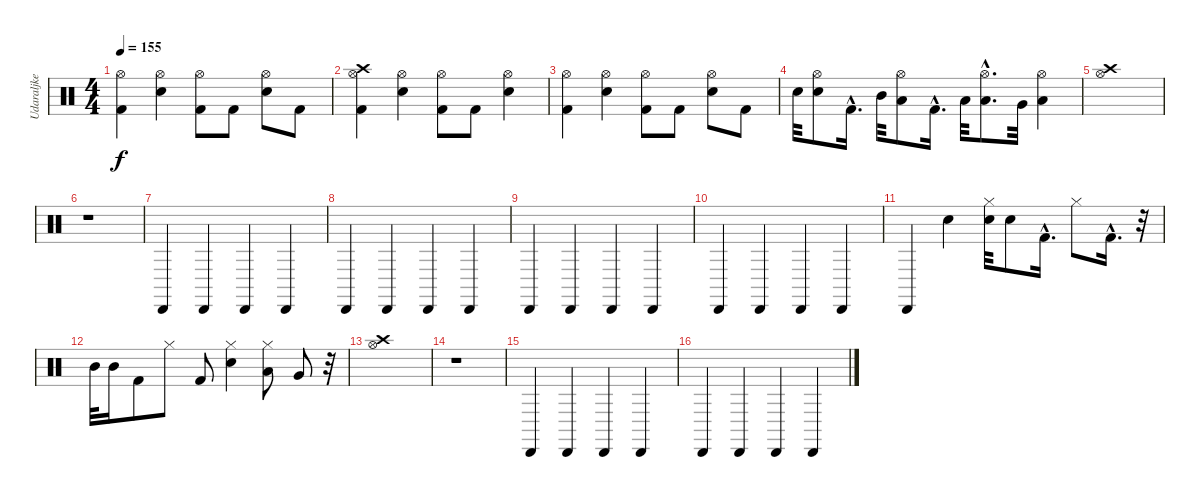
\track ("Udaraljke" "Udaraljke") {instrument percussion}
\staff {score}
\articulation defaults
\ts (4 4)
\tempo 155
\clef neutral
\ks c
("Hi-Hat (open)" "Kick (hit) 2").4{dy f} ("Hi-Hat (open)" "Electric Snare (hit)").4 ("Hi-Hat (open)" "Kick (hit) 2").8 "Kick (hit) 2".8 ("Hi-Hat (open)" "Electric Snare (hit)").8 "Kick (hit) 2".8 |
("Crash high (hit)" "Hi-Hat (open)" "Kick (hit) 2").4 ("Hi-Hat (open)" "Electric Snare (hit)").4 ("Hi-Hat (open)" "Kick (hit) 2").8 "Kick (hit) 2".8 ("Hi-Hat (open)" "Electric Snare (hit)").4 |
("Hi-Hat (open)" "Kick (hit) 2").4 ("Hi-Hat (open)" "Electric Snare (hit)").4 ("Hi-Hat (open)" "Kick (hit) 2").8 "Kick (hit) 2".8 ("Hi-Hat (open)" "Electric Snare (hit)").8 "Kick (hit) 2".8 |
"Snare (hit) 2".32 ("Snare (hit) 2" "Hi-Hat (open)").8 "Kick (hit) 2"{hac}.16{d} "Mid Tom (hit)".32 ("Low Tom (hit)" "Hi-Hat (open)").8 "Kick (hit) 2"{hac}.16{d} "Low Tom (hit)".32 ("Low Tom (hit)"{hac} "Hi-Hat (open)"{hac}).8{d} "Very Low Tom (hit)".32 ("Low Tom (hit)" "Hi-Hat (open)").4 |
("Hi-Hat (open)" "Crash high (hit)").1 |
r.1 |
"Cabasa (hit)".4 "Cabasa (hit)".4 "Cabasa (hit)".4 "Cabasa (hit)".4 |
"Cabasa (hit)".4 "Cabasa (hit)".4 "Cabasa (hit)".4 "Cabasa (hit)".4 |
"Cabasa (hit)".4 "Cabasa (hit)".4 "Cabasa (hit)".4 "Cabasa (hit)".4 |
"Cabasa (hit)".4 "Cabasa (hit)".4 "Cabasa (hit)".4 "Cabasa (hit)".4 |
"Cabasa (hit)".4 "Snare (hit) 2".4 ("Snare (hit) 2" "Hi-Hat (closed)").32 "Snare (hit) 2".8 "Kick (hit) 2"{hac}.16{d} "Hi-Hat (closed)".8 "Kick (hit) 2"{hac}.16{d} r.32 |
"Mid Tom (hit)".32 "Mid Tom (hit)".16 "Kick (hit) 2".8 "Hi-Hat (closed)".8 "Kick (hit) 2".8 ("Snare (hit) 2" "Hi-Hat (closed)").4 ("Low Tom (hit)" "Hi-Hat (closed)").8 "Very Low Tom (hit)".8 r.32 |
("Hi-Hat (open)" "Crash high (hit)").1 |
r.1 |
"Cabasa (hit)".4 "Cabasa (hit)".4 "Cabasa (hit)".4 "Cabasa (hit)".4 |
"Cabasa (hit)".4 "Cabasa (hit)".4 "Cabasa (hit)".4 "Cabasa (hit)".4
